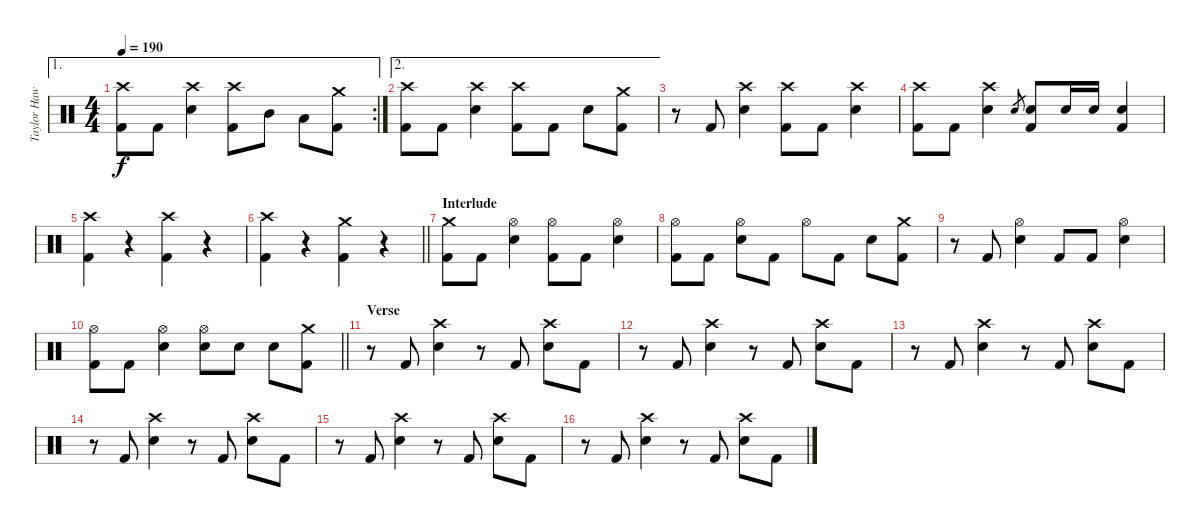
\track ("Taylor Hawkins (Drums)" "Taylor Haw") {instrument percussion}
\staff {score}
\articulation defaults
\ae 1
\rc 2
\ts (4 4)
\tempo 190
\clef neutral
\ks c
("Crash high (hit)" "Kick (hit) 2").8{dy f} "Kick (hit) 2".8 ("Crash high (hit)" "Snare (hit) 2").4 ("Crash high (hit)" "Kick (hit) 2").8 "Mid Tom (hit)".8 "Low Tom (hit)".8 ("Crash medium (hit)" "Kick (hit) 2").8 |
\ae 2
("Crash high (hit)" "Kick (hit) 2").8 "Kick (hit) 2".8 ("Crash high (hit)" "Snare (hit) 2").4 ("Crash high (hit)" "Kick (hit) 2").8 "Kick (hit) 2".8 "Snare (hit) 2".8 ("Crash medium (hit)" "Kick (hit) 2").8 |
r.8 "Kick (hit) 2".8 ("Crash high (hit)" "Snare (hit) 2").4 ("Crash high (hit)" "Kick (hit) 2").8 "Kick (hit) 2".8 ("Crash high (hit)" "Snare (hit) 2").4 |
("Crash high (hit)" "Kick (hit) 2").8 "Kick (hit) 2".8 ("Crash high (hit)" "Snare (hit) 2").4 "Snare (hit) 2".8{gr} ("Snare (hit) 2" "Kick (hit) 2").8 "Snare (hit) 2".16 "Snare (hit) 2".16 ("Snare (hit) 2" "Kick (hit) 2").4 |
("Crash high (hit)" "Kick (hit) 2").4 r.4 ("Crash high (hit)" "Kick (hit) 2").4 r.4 |
\barLineRight lightlight
("Crash high (hit)" "Kick (hit) 2").4 r.4 ("Crash medium (hit)" "Kick (hit) 2").4 r.4 |
\section ("" "Interlude")
("Crash medium (hit)" "Kick (hit) 2").8 "Kick (hit) 2".8 ("Hi-Hat (open)" "Snare (hit) 2").4 ("Hi-Hat (open)" "Kick (hit) 2").8 "Kick (hit) 2".8 ("Hi-Hat (open)" "Snare (hit) 2").4 |
("Hi-Hat (open)" "Kick (hit) 2").8 "Kick (hit) 2".8 ("Hi-Hat (open)" "Snare (hit) 2").8 "Kick (hit) 2".8 "Hi-Hat (open)".8 "Kick (hit) 2".8 "Snare (hit) 2".8 ("Crash medium (hit)" "Kick (hit) 2").8 |
r.8 "Kick (hit) 2".8 ("Hi-Hat (open)" "Snare (hit) 2").4 "Kick (hit) 2".8 "Kick (hit) 2".8 ("Hi-Hat (open)" "Snare (hit) 2").4 |
\barLineRight lightlight
("Hi-Hat (open)" "Kick (hit) 2").8 "Kick (hit) 2".8 ("Hi-Hat (open)" "Snare (hit) 2").4 ("Hi-Hat (open)" "Snare (hit) 2").8 "Snare (hit) 2".8 "Snare (hit) 2".8 ("Crash medium (hit)" "Kick (hit) 2").8 |
\section ("" "Verse")
r.8 "Kick (hit) 2".8 ("Crash high (hit)" "Snare (hit) 2").4 r.8 "Kick (hit) 2".8 ("Crash high (hit)" "Snare (hit) 2").8 "Kick (hit) 2".8 |
r.8 "Kick (hit) 2".8 ("Crash high (hit)" "Snare (hit) 2").4 r.8 "Kick (hit) 2".8 ("Crash high (hit)" "Snare (hit) 2").8 "Kick (hit) 2".8 |
r.8 "Kick (hit) 2".8 ("Crash high (hit)" "Snare (hit) 2").4 r.8 "Kick (hit) 2".8 ("Crash high (hit)" "Snare (hit) 2").8 "Kick (hit) 2".8 |
r.8 "Kick (hit) 2".8 ("Crash high (hit)" "Snare (hit) 2").4 r.8 "Kick (hit) 2".8 ("Crash high (hit)" "Snare (hit) 2").8 "Kick (hit) 2".8 |
r.8 "Kick (hit) 2".8 ("Crash high (hit)" "Snare (hit) 2").4 r.8 "Kick (hit) 2".8 ("Crash high (hit)" "Snare (hit) 2").8 "Kick (hit) 2".8 |
r.8 "Kick (hit) 2".8 ("Crash high (hit)" "Snare (hit) 2").4 r.8 "Kick (hit) 2".8 ("Crash high (hit)" "Snare (hit) 2").8 "Kick (hit) 2".8
